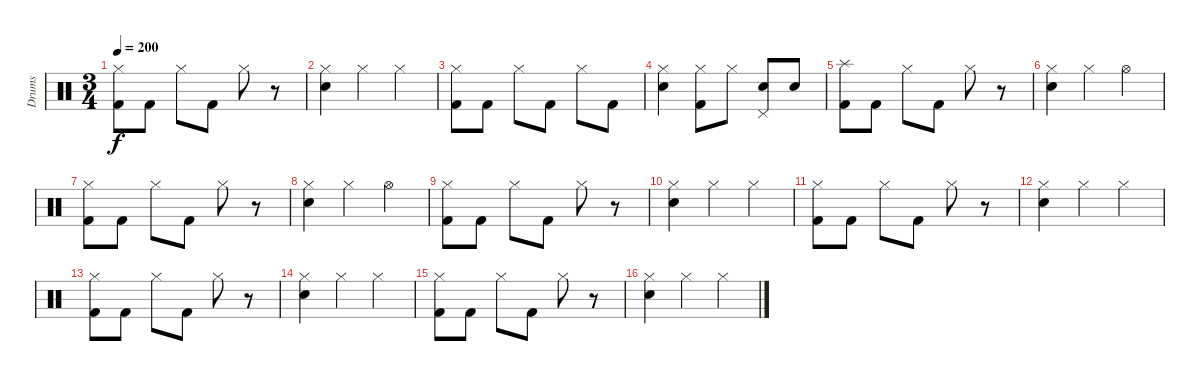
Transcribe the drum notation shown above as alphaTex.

\track ("Drums" "Drums") {instrument percussion}
\staff {score}
\articulation defaults
\ts (3 4)
\tempo 200
\clef neutral
\ks c
("Hi-Hat (closed)" "Kick (hit) 2").8{dy f} "Kick (hit) 2".8 "Hi-Hat (closed)".8 "Kick (hit) 2".8 "Hi-Hat (closed)".8 r.8 |
("Hi-Hat (closed)" "Electric Snare (hit)").4 "Hi-Hat (closed)".4 "Hi-Hat (closed)".4 |
("Hi-Hat (closed)" "Kick (hit) 2").8 "Kick (hit) 2".8 "Hi-Hat (closed)".8 "Kick (hit) 2".8 "Hi-Hat (closed)".8 "Kick (hit) 2".8 |
("Hi-Hat (closed)" "Electric Snare (hit)").4 ("Hi-Hat (closed)" "Kick (hit) 2").8 "Hi-Hat (closed)".8 ("Pedal Hi-Hat (hit)" "Electric Snare (hit)").8 "Electric Snare (hit)".8 |
("Splash (hit)" "Kick (hit) 2").8 "Kick (hit) 2".8 "Hi-Hat (closed)".8 "Kick (hit) 2".8 "Hi-Hat (closed)".8 r.8 |
("Hi-Hat (closed)" "Electric Snare (hit)").4 "Hi-Hat (closed)".4 "Hi-Hat (open)".4 |
("Hi-Hat (closed)" "Kick (hit) 2").8 "Kick (hit) 2".8 "Hi-Hat (closed)".8 "Kick (hit) 2".8 "Hi-Hat (closed)".8 r.8 |
("Hi-Hat (closed)" "Electric Snare (hit)").4 "Hi-Hat (closed)".4 "Hi-Hat (open)".4 |
("Hi-Hat (closed)" "Kick (hit) 2").8 "Kick (hit) 2".8 "Hi-Hat (closed)".8 "Kick (hit) 2".8 "Hi-Hat (closed)".8 r.8 |
("Hi-Hat (closed)" "Electric Snare (hit)").4 "Hi-Hat (closed)".4 "Hi-Hat (closed)".4 |
("Hi-Hat (closed)" "Kick (hit) 2").8 "Kick (hit) 2".8 "Hi-Hat (closed)".8 "Kick (hit) 2".8 "Hi-Hat (closed)".8 r.8 |
("Hi-Hat (closed)" "Electric Snare (hit)").4 "Hi-Hat (closed)".4 "Hi-Hat (closed)".4 |
("Hi-Hat (closed)" "Kick (hit) 2").8 "Kick (hit) 2".8 "Hi-Hat (closed)".8 "Kick (hit) 2".8 "Hi-Hat (closed)".8 r.8 |
("Hi-Hat (closed)" "Electric Snare (hit)").4 "Hi-Hat (closed)".4 "Hi-Hat (closed)".4 |
("Hi-Hat (closed)" "Kick (hit) 2").8 "Kick (hit) 2".8 "Hi-Hat (closed)".8 "Kick (hit) 2".8 "Hi-Hat (closed)".8 r.8 |
("Hi-Hat (closed)" "Electric Snare (hit)").4 "Hi-Hat (closed)".4 "Hi-Hat (closed)".4
